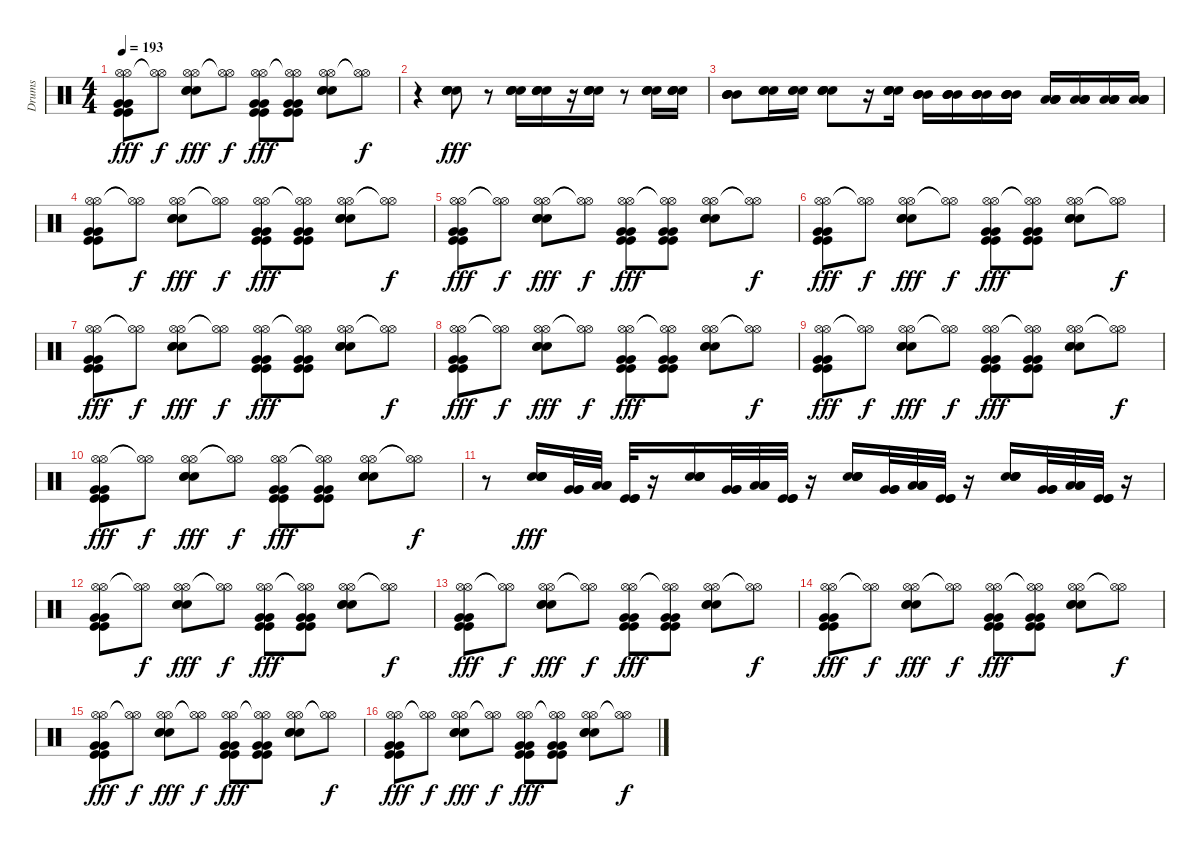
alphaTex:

\track ("Drums" "Drums") {instrument percussion}
\staff {score}
\articulation defaults
\ts (4 4)
\tempo 193
\clef neutral
\ks c
("Hi-Hat (open)" "Hi-Hat (open)" "Kick (hit)" "Kick (hit)" "Very Low Tom (hit)" "Very Low Tom (hit)").8{dy fff} ("Hi-Hat (open)"{t} "Hi-Hat (open)"{t}).8{dy f} ("Hi-Hat (open)" "Hi-Hat (open)" "Snare (hit) 2" "Snare (hit) 2" "Snare (hit) 2").8{dy fff} ("Hi-Hat (open)"{t} "Hi-Hat (open)"{t}).8{dy f} ("Hi-Hat (open)" "Hi-Hat (open)" "Kick (hit)" "Kick (hit)" "Very Low Tom (hit)" "Very Low Tom (hit)").8{dy fff} ("Hi-Hat (open)"{t} "Hi-Hat (open)"{t} "Kick (hit)" "Kick (hit)" "Very Low Tom (hit)" "Very Low Tom (hit)").8 ("Hi-Hat (open)" "Hi-Hat (open)" "Snare (hit) 2" "Snare (hit) 2" "Snare (hit) 2").8 ("Hi-Hat (open)"{t} "Hi-Hat (open)"{t}).8{dy f} |
r.4 ("Snare (hit) 2" "Snare (hit) 2" "Snare (hit) 2" "Snare (hit) 2").8{dy fff} r.8 ("Snare (hit) 2" "Snare (hit) 2" "Snare (hit) 2" "Snare (hit) 2").16 ("Snare (hit) 2" "Snare (hit) 2" "Snare (hit) 2" "Snare (hit) 2").16 r.16 ("Snare (hit) 2" "Snare (hit) 2" "Snare (hit) 2" "Snare (hit) 2").16 r.8 ("Snare (hit) 2" "Snare (hit) 2" "Snare (hit) 2" "Snare (hit) 2").16 ("Snare (hit) 2" "Snare (hit) 2" "Snare (hit) 2" "Snare (hit) 2").16 |
("Mid Tom (hit)" "Mid Tom (hit)" "Mid Tom (hit)" "Mid Tom (hit)").8 ("Snare (hit) 2" "Snare (hit) 2" "Snare (hit) 2").16 ("Snare (hit) 2" "Snare (hit) 2" "Snare (hit) 2").16 ("Snare (hit) 2" "Snare (hit) 2" "Snare (hit) 2" "Snare (hit) 2").8 r.16 ("Snare (hit) 2" "Snare (hit) 2" "Snare (hit) 2" "Snare (hit) 2").16 ("Mid Tom (hit)" "Mid Tom (hit)" "Mid Tom (hit)" "Mid Tom (hit)").16 ("Mid Tom (hit)" "Mid Tom (hit)" "Mid Tom (hit)" "Mid Tom (hit)").16 ("Mid Tom (hit)" "Mid Tom (hit)" "Mid Tom (hit)" "Mid Tom (hit)").16 ("Mid Tom (hit)" "Mid Tom (hit)" "Mid Tom (hit)" "Mid Tom (hit)").16 ("Low Tom (hit)" "Low Tom (hit)" "Low Tom (hit)" "Low Tom (hit)").16 ("Low Tom (hit)" "Low Tom (hit)" "Low Tom (hit)" "Low Tom (hit)").16 ("Low Tom (hit)" "Low Tom (hit)" "Low Tom (hit)" "Low Tom (hit)").16 ("Low Tom (hit)" "Low Tom (hit)" "Low Tom (hit)" "Low Tom (hit)").16 |
("Hi-Hat (open)" "Hi-Hat (open)" "Kick (hit)" "Kick (hit)" "Very Low Tom (hit)" "Very Low Tom (hit)").8 ("Hi-Hat (open)"{t} "Hi-Hat (open)"{t}).8{dy f} ("Hi-Hat (open)" "Hi-Hat (open)" "Snare (hit) 2" "Snare (hit) 2" "Snare (hit) 2").8{dy fff} ("Hi-Hat (open)"{t} "Hi-Hat (open)"{t}).8{dy f} ("Hi-Hat (open)" "Hi-Hat (open)" "Kick (hit)" "Kick (hit)" "Very Low Tom (hit)" "Very Low Tom (hit)").8{dy fff} ("Hi-Hat (open)"{t} "Hi-Hat (open)"{t} "Kick (hit)" "Kick (hit)" "Very Low Tom (hit)" "Very Low Tom (hit)").8 ("Hi-Hat (open)" "Hi-Hat (open)" "Snare (hit) 2" "Snare (hit) 2" "Snare (hit) 2").8 ("Hi-Hat (open)"{t} "Hi-Hat (open)"{t}).8{dy f} |
("Hi-Hat (open)" "Hi-Hat (open)" "Kick (hit)" "Kick (hit)" "Very Low Tom (hit)" "Very Low Tom (hit)").8{dy fff} ("Hi-Hat (open)"{t} "Hi-Hat (open)"{t}).8{dy f} ("Hi-Hat (open)" "Hi-Hat (open)" "Snare (hit) 2" "Snare (hit) 2" "Snare (hit) 2").8{dy fff} ("Hi-Hat (open)"{t} "Hi-Hat (open)"{t}).8{dy f} ("Hi-Hat (open)" "Hi-Hat (open)" "Kick (hit)" "Kick (hit)" "Very Low Tom (hit)" "Very Low Tom (hit)").8{dy fff} ("Hi-Hat (open)"{t} "Hi-Hat (open)"{t} "Kick (hit)" "Kick (hit)" "Very Low Tom (hit)" "Very Low Tom (hit)").8 ("Hi-Hat (open)" "Hi-Hat (open)" "Snare (hit) 2" "Snare (hit) 2" "Snare (hit) 2").8 ("Hi-Hat (open)"{t} "Hi-Hat (open)"{t}).8{dy f} |
("Hi-Hat (open)" "Hi-Hat (open)" "Kick (hit)" "Kick (hit)" "Very Low Tom (hit)" "Very Low Tom (hit)").8{dy fff} ("Hi-Hat (open)"{t} "Hi-Hat (open)"{t}).8{dy f} ("Hi-Hat (open)" "Hi-Hat (open)" "Snare (hit) 2" "Snare (hit) 2" "Snare (hit) 2").8{dy fff} ("Hi-Hat (open)"{t} "Hi-Hat (open)"{t}).8{dy f} ("Hi-Hat (open)" "Hi-Hat (open)" "Kick (hit)" "Kick (hit)" "Very Low Tom (hit)" "Very Low Tom (hit)").8{dy fff} ("Hi-Hat (open)"{t} "Hi-Hat (open)"{t} "Kick (hit)" "Kick (hit)" "Very Low Tom (hit)" "Very Low Tom (hit)").8 ("Hi-Hat (open)" "Hi-Hat (open)" "Snare (hit) 2" "Snare (hit) 2" "Snare (hit) 2").8 ("Hi-Hat (open)"{t} "Hi-Hat (open)"{t}).8{dy f} |
("Hi-Hat (open)" "Hi-Hat (open)" "Kick (hit)" "Kick (hit)" "Very Low Tom (hit)" "Very Low Tom (hit)").8{dy fff} ("Hi-Hat (open)"{t} "Hi-Hat (open)"{t}).8{dy f} ("Hi-Hat (open)" "Hi-Hat (open)" "Snare (hit) 2" "Snare (hit) 2" "Snare (hit) 2").8{dy fff} ("Hi-Hat (open)"{t} "Hi-Hat (open)"{t}).8{dy f} ("Hi-Hat (open)" "Hi-Hat (open)" "Kick (hit)" "Kick (hit)" "Very Low Tom (hit)" "Very Low Tom (hit)").8{dy fff} ("Hi-Hat (open)"{t} "Hi-Hat (open)"{t} "Kick (hit)" "Kick (hit)" "Very Low Tom (hit)" "Very Low Tom (hit)").8 ("Hi-Hat (open)" "Hi-Hat (open)" "Snare (hit) 2" "Snare (hit) 2" "Snare (hit) 2").8 ("Hi-Hat (open)"{t} "Hi-Hat (open)"{t}).8{dy f} |
("Hi-Hat (open)" "Hi-Hat (open)" "Kick (hit)" "Kick (hit)" "Very Low Tom (hit)" "Very Low Tom (hit)").8{dy fff} ("Hi-Hat (open)"{t} "Hi-Hat (open)"{t}).8{dy f} ("Hi-Hat (open)" "Hi-Hat (open)" "Snare (hit) 2" "Snare (hit) 2" "Snare (hit) 2").8{dy fff} ("Hi-Hat (open)"{t} "Hi-Hat (open)"{t}).8{dy f} ("Hi-Hat (open)" "Hi-Hat (open)" "Kick (hit)" "Kick (hit)" "Very Low Tom (hit)" "Very Low Tom (hit)").8{dy fff} ("Hi-Hat (open)"{t} "Hi-Hat (open)"{t} "Kick (hit)" "Kick (hit)" "Very Low Tom (hit)" "Very Low Tom (hit)").8 ("Hi-Hat (open)" "Hi-Hat (open)" "Snare (hit) 2" "Snare (hit) 2" "Snare (hit) 2").8 ("Hi-Hat (open)"{t} "Hi-Hat (open)"{t}).8{dy f} |
("Hi-Hat (open)" "Hi-Hat (open)" "Kick (hit)" "Kick (hit)" "Very Low Tom (hit)" "Very Low Tom (hit)").8{dy fff} ("Hi-Hat (open)"{t} "Hi-Hat (open)"{t}).8{dy f} ("Hi-Hat (open)" "Hi-Hat (open)" "Snare (hit) 2" "Snare (hit) 2" "Snare (hit) 2").8{dy fff} ("Hi-Hat (open)"{t} "Hi-Hat (open)"{t}).8{dy f} ("Hi-Hat (open)" "Hi-Hat (open)" "Kick (hit)" "Kick (hit)" "Very Low Tom (hit)" "Very Low Tom (hit)").8{dy fff} ("Hi-Hat (open)"{t} "Hi-Hat (open)"{t} "Kick (hit)" "Kick (hit)" "Very Low Tom (hit)" "Very Low Tom (hit)").8 ("Hi-Hat (open)" "Hi-Hat (open)" "Snare (hit) 2" "Snare (hit) 2" "Snare (hit) 2").8 ("Hi-Hat (open)"{t} "Hi-Hat (open)"{t}).8{dy f} |
("Hi-Hat (open)" "Hi-Hat (open)" "Kick (hit)" "Kick (hit)" "Very Low Tom (hit)" "Very Low Tom (hit)").8{dy fff} ("Hi-Hat (open)"{t} "Hi-Hat (open)"{t}).8{dy f} ("Hi-Hat (open)" "Hi-Hat (open)" "Snare (hit) 2" "Snare (hit) 2" "Snare (hit) 2").8{dy fff} ("Hi-Hat (open)"{t} "Hi-Hat (open)"{t}).8{dy f} ("Hi-Hat (open)" "Hi-Hat (open)" "Kick (hit)" "Kick (hit)" "Very Low Tom (hit)" "Very Low Tom (hit)").8{dy fff} ("Hi-Hat (open)"{t} "Hi-Hat (open)"{t} "Kick (hit)" "Kick (hit)" "Very Low Tom (hit)" "Very Low Tom (hit)").8 ("Hi-Hat (open)" "Hi-Hat (open)" "Snare (hit) 2" "Snare (hit) 2" "Snare (hit) 2").8 ("Hi-Hat (open)"{t} "Hi-Hat (open)"{t}).8{dy f} |
r.8 ("Snare (hit) 2" "Snare (hit) 2" "Snare (hit) 2" "Snare (hit) 2").16{dy fff} ("Very Low Tom (hit)" "Very Low Tom (hit)" "Very Low Tom (hit)").32 ("Low Floor Tom (hit)" "Low Floor Tom (hit)" "Low Floor Tom (hit)").32 ("Kick (hit)" "Kick (hit)" "Kick (hit)").32 r.16 ("Snare (hit) 2" "Snare (hit) 2" "Snare (hit) 2" "Snare (hit) 2").16 ("Very Low Tom (hit)" "Very Low Tom (hit)" "Very Low Tom (hit)").32 ("Low Floor Tom (hit)" "Low Floor Tom (hit)" "Low Floor Tom (hit)").32 ("Kick (hit)" "Kick (hit)" "Kick (hit)").32 r.16 ("Snare (hit) 2" "Snare (hit) 2" "Snare (hit) 2" "Snare (hit) 2").16 ("Very Low Tom (hit)" "Very Low Tom (hit)" "Very Low Tom (hit)").32 ("Low Floor Tom (hit)" "Low Floor Tom (hit)" "Low Floor Tom (hit)").32 ("Kick (hit)" "Kick (hit)" "Kick (hit)").32 r.16 ("Snare (hit) 2" "Snare (hit) 2" "Snare (hit) 2" "Snare (hit) 2").16 ("Very Low Tom (hit)" "Very Low Tom (hit)" "Very Low Tom (hit)").32 ("Low Floor Tom (hit)" "Low Floor Tom (hit)" "Low Floor Tom (hit)").32 ("Kick (hit)" "Kick (hit)" "Kick (hit)").32 r.16 |
("Hi-Hat (open)" "Hi-Hat (open)" "Kick (hit)" "Kick (hit)" "Very Low Tom (hit)" "Very Low Tom (hit)").8 ("Hi-Hat (open)"{t} "Hi-Hat (open)"{t}).8{dy f} ("Hi-Hat (open)" "Hi-Hat (open)" "Snare (hit) 2" "Snare (hit) 2" "Snare (hit) 2").8{dy fff} ("Hi-Hat (open)"{t} "Hi-Hat (open)"{t}).8{dy f} ("Hi-Hat (open)" "Hi-Hat (open)" "Kick (hit)" "Kick (hit)" "Very Low Tom (hit)" "Very Low Tom (hit)").8{dy fff} ("Hi-Hat (open)"{t} "Hi-Hat (open)"{t} "Kick (hit)" "Kick (hit)" "Very Low Tom (hit)" "Very Low Tom (hit)").8 ("Hi-Hat (open)" "Hi-Hat (open)" "Snare (hit) 2" "Snare (hit) 2" "Snare (hit) 2").8 ("Hi-Hat (open)"{t} "Hi-Hat (open)"{t}).8{dy f} |
("Hi-Hat (open)" "Hi-Hat (open)" "Kick (hit)" "Kick (hit)" "Very Low Tom (hit)" "Very Low Tom (hit)").8{dy fff} ("Hi-Hat (open)"{t} "Hi-Hat (open)"{t}).8{dy f} ("Hi-Hat (open)" "Hi-Hat (open)" "Snare (hit) 2" "Snare (hit) 2" "Snare (hit) 2").8{dy fff} ("Hi-Hat (open)"{t} "Hi-Hat (open)"{t}).8{dy f} ("Hi-Hat (open)" "Hi-Hat (open)" "Kick (hit)" "Kick (hit)" "Very Low Tom (hit)" "Very Low Tom (hit)").8{dy fff} ("Hi-Hat (open)"{t} "Hi-Hat (open)"{t} "Kick (hit)" "Kick (hit)" "Very Low Tom (hit)" "Very Low Tom (hit)").8 ("Hi-Hat (open)" "Hi-Hat (open)" "Snare (hit) 2" "Snare (hit) 2" "Snare (hit) 2").8 ("Hi-Hat (open)"{t} "Hi-Hat (open)"{t}).8{dy f} |
("Hi-Hat (open)" "Hi-Hat (open)" "Kick (hit)" "Kick (hit)" "Very Low Tom (hit)" "Very Low Tom (hit)").8{dy fff} ("Hi-Hat (open)"{t} "Hi-Hat (open)"{t}).8{dy f} ("Hi-Hat (open)" "Hi-Hat (open)" "Snare (hit) 2" "Snare (hit) 2" "Snare (hit) 2").8{dy fff} ("Hi-Hat (open)"{t} "Hi-Hat (open)"{t}).8{dy f} ("Hi-Hat (open)" "Hi-Hat (open)" "Kick (hit)" "Kick (hit)" "Very Low Tom (hit)" "Very Low Tom (hit)").8{dy fff} ("Hi-Hat (open)"{t} "Hi-Hat (open)"{t} "Kick (hit)" "Kick (hit)" "Very Low Tom (hit)" "Very Low Tom (hit)").8 ("Hi-Hat (open)" "Hi-Hat (open)" "Snare (hit) 2" "Snare (hit) 2" "Snare (hit) 2").8 ("Hi-Hat (open)"{t} "Hi-Hat (open)"{t}).8{dy f} |
("Hi-Hat (open)" "Hi-Hat (open)" "Kick (hit)" "Kick (hit)" "Very Low Tom (hit)" "Very Low Tom (hit)").8{dy fff} ("Hi-Hat (open)"{t} "Hi-Hat (open)"{t}).8{dy f} ("Hi-Hat (open)" "Hi-Hat (open)" "Snare (hit) 2" "Snare (hit) 2" "Snare (hit) 2").8{dy fff} ("Hi-Hat (open)"{t} "Hi-Hat (open)"{t}).8{dy f} ("Hi-Hat (open)" "Hi-Hat (open)" "Kick (hit)" "Kick (hit)" "Very Low Tom (hit)" "Very Low Tom (hit)").8{dy fff} ("Hi-Hat (open)"{t} "Hi-Hat (open)"{t} "Kick (hit)" "Kick (hit)" "Very Low Tom (hit)" "Very Low Tom (hit)").8 ("Hi-Hat (open)" "Hi-Hat (open)" "Snare (hit) 2" "Snare (hit) 2" "Snare (hit) 2").8 ("Hi-Hat (open)"{t} "Hi-Hat (open)"{t}).8{dy f} |
("Hi-Hat (open)" "Hi-Hat (open)" "Kick (hit)" "Kick (hit)" "Very Low Tom (hit)" "Very Low Tom (hit)").8{dy fff} ("Hi-Hat (open)"{t} "Hi-Hat (open)"{t}).8{dy f} ("Hi-Hat (open)" "Hi-Hat (open)" "Snare (hit) 2" "Snare (hit) 2" "Snare (hit) 2").8{dy fff} ("Hi-Hat (open)"{t} "Hi-Hat (open)"{t}).8{dy f} ("Hi-Hat (open)" "Hi-Hat (open)" "Kick (hit)" "Kick (hit)" "Very Low Tom (hit)" "Very Low Tom (hit)").8{dy fff} ("Hi-Hat (open)"{t} "Hi-Hat (open)"{t} "Kick (hit)" "Kick (hit)" "Very Low Tom (hit)" "Very Low Tom (hit)").8 ("Hi-Hat (open)" "Hi-Hat (open)" "Snare (hit) 2" "Snare (hit) 2" "Snare (hit) 2").8 ("Hi-Hat (open)"{t} "Hi-Hat (open)"{t}).8{dy f}
